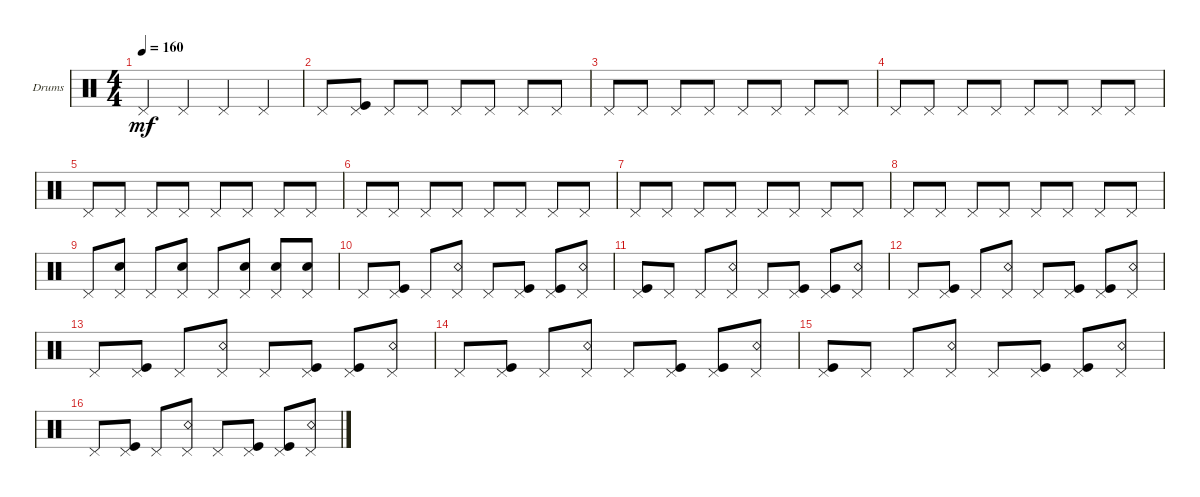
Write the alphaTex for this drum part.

\bracketExtendMode groupsimilarinstruments
\firstSystemTrackNameOrientation horizontal
\otherSystemsTrackNameOrientation horizontal
\track ("Drumkit" "Drums") {instrument percussion}
\staff {score}
\articulation defaults
\ts (4 4)
\tempo 160
\clef neutral
\ks c "Pedal Hi-Hat (hit)".4{dy mf} "Pedal Hi-Hat (hit)".4 "Pedal Hi-Hat (hit)".4 "Pedal Hi-Hat (hit)".4
|
"Pedal Hi-Hat (hit)".8 ("Pedal Hi-Hat (hit)" "Kick (hit)").8 "Pedal Hi-Hat (hit)".8 "Pedal Hi-Hat (hit)".8 "Pedal Hi-Hat (hit)".8 "Pedal Hi-Hat (hit)".8 "Pedal Hi-Hat (hit)".8 "Pedal Hi-Hat (hit)".8 |
"Pedal Hi-Hat (hit)".8 "Pedal Hi-Hat (hit)".8 "Pedal Hi-Hat (hit)".8 "Pedal Hi-Hat (hit)".8 "Pedal Hi-Hat (hit)".8 "Pedal Hi-Hat (hit)".8 "Pedal Hi-Hat (hit)".8 "Pedal Hi-Hat (hit)".8 |
"Pedal Hi-Hat (hit)".8 "Pedal Hi-Hat (hit)".8 "Pedal Hi-Hat (hit)".8 "Pedal Hi-Hat (hit)".8 "Pedal Hi-Hat (hit)".8 "Pedal Hi-Hat (hit)".8 "Pedal Hi-Hat (hit)".8 "Pedal Hi-Hat (hit)".8 |
"Pedal Hi-Hat (hit)".8 "Pedal Hi-Hat (hit)".8 "Pedal Hi-Hat (hit)".8 "Pedal Hi-Hat (hit)".8 "Pedal Hi-Hat (hit)".8 "Pedal Hi-Hat (hit)".8 "Pedal Hi-Hat (hit)".8 "Pedal Hi-Hat (hit)".8 |
"Pedal Hi-Hat (hit)".8 "Pedal Hi-Hat (hit)".8 "Pedal Hi-Hat (hit)".8 "Pedal Hi-Hat (hit)".8 "Pedal Hi-Hat (hit)".8 "Pedal Hi-Hat (hit)".8 "Pedal Hi-Hat (hit)".8 "Pedal Hi-Hat (hit)".8 |
"Pedal Hi-Hat (hit)".8 "Pedal Hi-Hat (hit)".8 "Pedal Hi-Hat (hit)".8 "Pedal Hi-Hat (hit)".8 "Pedal Hi-Hat (hit)".8 "Pedal Hi-Hat (hit)".8 "Pedal Hi-Hat (hit)".8 "Pedal Hi-Hat (hit)".8 |
"Pedal Hi-Hat (hit)".8 "Pedal Hi-Hat (hit)".8 "Pedal Hi-Hat (hit)".8 "Pedal Hi-Hat (hit)".8 "Pedal Hi-Hat (hit)".8 "Pedal Hi-Hat (hit)".8 "Pedal Hi-Hat (hit)".8 "Pedal Hi-Hat (hit)".8 |
"Pedal Hi-Hat (hit)".8 ("Pedal Hi-Hat (hit)" "Snare (hit) 2").8 "Pedal Hi-Hat (hit)".8 ("Pedal Hi-Hat (hit)" "Snare (hit) 2").8 "Pedal Hi-Hat (hit)".8 ("Pedal Hi-Hat (hit)" "Snare (hit) 2").8 ("Pedal Hi-Hat (hit)" "Snare (hit) 2").8 ("Pedal Hi-Hat (hit)" "Snare (hit) 2").8 |
"Pedal Hi-Hat (hit)".8 ("Pedal Hi-Hat (hit)" "Kick (hit)").8 "Pedal Hi-Hat (hit)".8 ("Pedal Hi-Hat (hit)" "Snare (rim shot)").8 "Pedal Hi-Hat (hit)".8 ("Pedal Hi-Hat (hit)" "Kick (hit)").8 ("Pedal Hi-Hat (hit)" "Kick (hit)").8 ("Pedal Hi-Hat (hit)" "Snare (rim shot)").8 |
("Pedal Hi-Hat (hit)" "Kick (hit)").8 "Pedal Hi-Hat (hit)".8 "Pedal Hi-Hat (hit)".8 ("Pedal Hi-Hat (hit)" "Snare (rim shot)").8 "Pedal Hi-Hat (hit)".8 ("Pedal Hi-Hat (hit)" "Kick (hit)").8 ("Pedal Hi-Hat (hit)" "Kick (hit)").8 ("Pedal Hi-Hat (hit)" "Snare (rim shot)").8 |
"Pedal Hi-Hat (hit)".8 ("Pedal Hi-Hat (hit)" "Kick (hit)").8 "Pedal Hi-Hat (hit)".8 ("Pedal Hi-Hat (hit)" "Snare (rim shot)").8 "Pedal Hi-Hat (hit)".8 ("Pedal Hi-Hat (hit)" "Kick (hit)").8 ("Pedal Hi-Hat (hit)" "Kick (hit)").8 ("Pedal Hi-Hat (hit)" "Snare (rim shot)").8 |
"Pedal Hi-Hat (hit)".8 ("Pedal Hi-Hat (hit)" "Kick (hit)").8 "Pedal Hi-Hat (hit)".8 ("Pedal Hi-Hat (hit)" "Snare (rim shot)").8 "Pedal Hi-Hat (hit)".8 ("Pedal Hi-Hat (hit)" "Kick (hit)").8 ("Pedal Hi-Hat (hit)" "Kick (hit)").8 ("Pedal Hi-Hat (hit)" "Snare (rim shot)").8 |
"Pedal Hi-Hat (hit)".8 ("Pedal Hi-Hat (hit)" "Kick (hit)").8 "Pedal Hi-Hat (hit)".8 ("Pedal Hi-Hat (hit)" "Snare (rim shot)").8 "Pedal Hi-Hat (hit)".8 ("Pedal Hi-Hat (hit)" "Kick (hit)").8 ("Pedal Hi-Hat (hit)" "Kick (hit)").8 ("Pedal Hi-Hat (hit)" "Snare (rim shot)").8 |
("Pedal Hi-Hat (hit)" "Kick (hit)").8 "Pedal Hi-Hat (hit)".8 "Pedal Hi-Hat (hit)".8 ("Pedal Hi-Hat (hit)" "Snare (rim shot)").8 "Pedal Hi-Hat (hit)".8 ("Pedal Hi-Hat (hit)" "Kick (hit)").8 ("Pedal Hi-Hat (hit)" "Kick (hit)").8 ("Pedal Hi-Hat (hit)" "Snare (rim shot)").8 |
"Pedal Hi-Hat (hit)".8 ("Pedal Hi-Hat (hit)" "Kick (hit)").8 "Pedal Hi-Hat (hit)".8 ("Pedal Hi-Hat (hit)" "Snare (rim shot)").8 "Pedal Hi-Hat (hit)".8 ("Pedal Hi-Hat (hit)" "Kick (hit)").8 ("Pedal Hi-Hat (hit)" "Kick (hit)").8 ("Pedal Hi-Hat (hit)" "Snare (rim shot)").8
